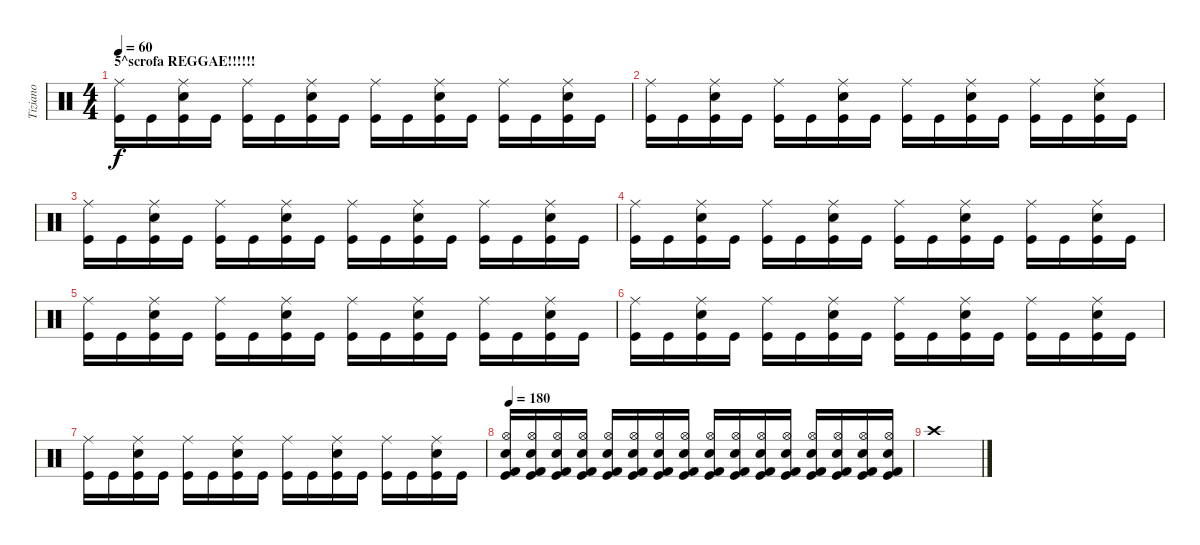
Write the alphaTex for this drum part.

\track ("Tiziano" "Tiziano") {instrument percussion}
\staff {score}
\articulation defaults
\ts (4 4)
\section ("" "5^scrofa REGGAE!!!!!!")
\tempo 60
\clef neutral
\ks c
("Kick (hit)" "Ride (middle)").16{dy f} "Kick (hit)".16 ("Kick (hit)" "Snare (hit) 2" "Ride (middle)").16 "Kick (hit)".16 ("Kick (hit)" "Ride (middle)").16 "Kick (hit)".16 ("Kick (hit)" "Snare (hit) 2" "Ride (middle)").16 "Kick (hit)".16 ("Kick (hit)" "Ride (middle)").16 "Kick (hit)".16 ("Kick (hit)" "Snare (hit) 2" "Ride (middle)").16 "Kick (hit)".16 ("Kick (hit)" "Ride (middle)").16 "Kick (hit)".16 ("Kick (hit)" "Snare (hit) 2" "Ride (middle)").16 "Kick (hit)".16 |
("Kick (hit)" "Ride (middle)").16 "Kick (hit)".16 ("Kick (hit)" "Snare (hit) 2" "Ride (middle)").16 "Kick (hit)".16 ("Kick (hit)" "Ride (middle)").16 "Kick (hit)".16 ("Kick (hit)" "Snare (hit) 2" "Ride (middle)").16 "Kick (hit)".16 ("Kick (hit)" "Ride (middle)").16 "Kick (hit)".16 ("Kick (hit)" "Snare (hit) 2" "Ride (middle)").16 "Kick (hit)".16 ("Kick (hit)" "Ride (middle)").16 "Kick (hit)".16 ("Kick (hit)" "Snare (hit) 2" "Ride (middle)").16 "Kick (hit)".16 |
("Kick (hit)" "Ride (middle)").16 "Kick (hit)".16 ("Kick (hit)" "Snare (hit) 2" "Ride (middle)").16 "Kick (hit)".16 ("Kick (hit)" "Ride (middle)").16 "Kick (hit)".16 ("Kick (hit)" "Snare (hit) 2" "Ride (middle)").16 "Kick (hit)".16 ("Kick (hit)" "Ride (middle)").16 "Kick (hit)".16 ("Kick (hit)" "Snare (hit) 2" "Ride (middle)").16 "Kick (hit)".16 ("Kick (hit)" "Ride (middle)").16 "Kick (hit)".16 ("Kick (hit)" "Snare (hit) 2" "Ride (middle)").16 "Kick (hit)".16 |
("Kick (hit)" "Ride (middle)").16 "Kick (hit)".16 ("Kick (hit)" "Snare (hit) 2" "Ride (middle)").16 "Kick (hit)".16 ("Kick (hit)" "Ride (middle)").16 "Kick (hit)".16 ("Kick (hit)" "Snare (hit) 2" "Ride (middle)").16 "Kick (hit)".16 ("Kick (hit)" "Ride (middle)").16 "Kick (hit)".16 ("Kick (hit)" "Snare (hit) 2" "Ride (middle)").16 "Kick (hit)".16 ("Kick (hit)" "Ride (middle)").16 "Kick (hit)".16 ("Kick (hit)" "Snare (hit) 2" "Ride (middle)").16 "Kick (hit)".16 |
("Kick (hit)" "Ride (middle)").16 "Kick (hit)".16 ("Kick (hit)" "Snare (hit) 2" "Ride (middle)").16 "Kick (hit)".16 ("Kick (hit)" "Ride (middle)").16 "Kick (hit)".16 ("Kick (hit)" "Snare (hit) 2" "Ride (middle)").16 "Kick (hit)".16 ("Kick (hit)" "Ride (middle)").16 "Kick (hit)".16 ("Kick (hit)" "Snare (hit) 2" "Ride (middle)").16 "Kick (hit)".16 ("Kick (hit)" "Ride (middle)").16 "Kick (hit)".16 ("Kick (hit)" "Snare (hit) 2" "Ride (middle)").16 "Kick (hit)".16 |
("Kick (hit)" "Ride (middle)").16 "Kick (hit)".16 ("Kick (hit)" "Snare (hit) 2" "Ride (middle)").16 "Kick (hit)".16 ("Kick (hit)" "Ride (middle)").16 "Kick (hit)".16 ("Kick (hit)" "Snare (hit) 2" "Ride (middle)").16 "Kick (hit)".16 ("Kick (hit)" "Ride (middle)").16 "Kick (hit)".16 ("Kick (hit)" "Snare (hit) 2" "Ride (middle)").16 "Kick (hit)".16 ("Kick (hit)" "Ride (middle)").16 "Kick (hit)".16 ("Kick (hit)" "Snare (hit) 2" "Ride (middle)").16 "Kick (hit)".16 |
("Kick (hit)" "Ride (middle)").16 "Kick (hit)".16 ("Kick (hit)" "Snare (hit) 2" "Ride (middle)").16 "Kick (hit)".16 ("Kick (hit)" "Ride (middle)").16 "Kick (hit)".16 ("Kick (hit)" "Snare (hit) 2" "Ride (middle)").16 "Kick (hit)".16 ("Kick (hit)" "Ride (middle)").16 "Kick (hit)".16 ("Kick (hit)" "Snare (hit) 2" "Ride (middle)").16 "Kick (hit)".16 ("Kick (hit)" "Ride (middle)").16 "Kick (hit)".16 ("Kick (hit)" "Snare (hit) 2" "Ride (middle)").16 "Kick (hit)".16 |
\tempo 180
("Hi-Hat (open)" "Kick (hit)" "Kick (hit) 2" "Snare (hit) 2").16 ("Hi-Hat (open)" "Kick (hit)" "Kick (hit) 2" "Snare (hit) 2").16 ("Hi-Hat (open)" "Kick (hit)" "Kick (hit) 2" "Snare (hit) 2").16 ("Hi-Hat (open)" "Kick (hit)" "Kick (hit) 2" "Snare (hit) 2").16 ("Hi-Hat (open)" "Kick (hit)" "Kick (hit) 2" "Snare (hit) 2").16 ("Hi-Hat (open)" "Kick (hit)" "Kick (hit) 2" "Snare (hit) 2").16 ("Hi-Hat (open)" "Kick (hit)" "Kick (hit) 2" "Snare (hit) 2").16 ("Hi-Hat (open)" "Kick (hit)" "Kick (hit) 2" "Snare (hit) 2").16 ("Hi-Hat (open)" "Kick (hit)" "Kick (hit) 2" "Snare (hit) 2").16 ("Hi-Hat (open)" "Kick (hit)" "Kick (hit) 2" "Snare (hit) 2").16 ("Hi-Hat (open)" "Kick (hit)" "Kick (hit) 2" "Snare (hit) 2").16 ("Hi-Hat (open)" "Kick (hit)" "Kick (hit) 2" "Snare (hit) 2").16 ("Hi-Hat (open)" "Kick (hit)" "Kick (hit) 2" "Snare (hit) 2").16 ("Hi-Hat (open)" "Kick (hit)" "Kick (hit) 2" "Snare (hit) 2").16 ("Hi-Hat (open)" "Kick (hit)" "Kick (hit) 2" "Snare (hit) 2").16 ("Hi-Hat (open)" "Kick (hit)" "Kick (hit) 2" "Snare (hit) 2").16 |
"Crash high (hit)".1
